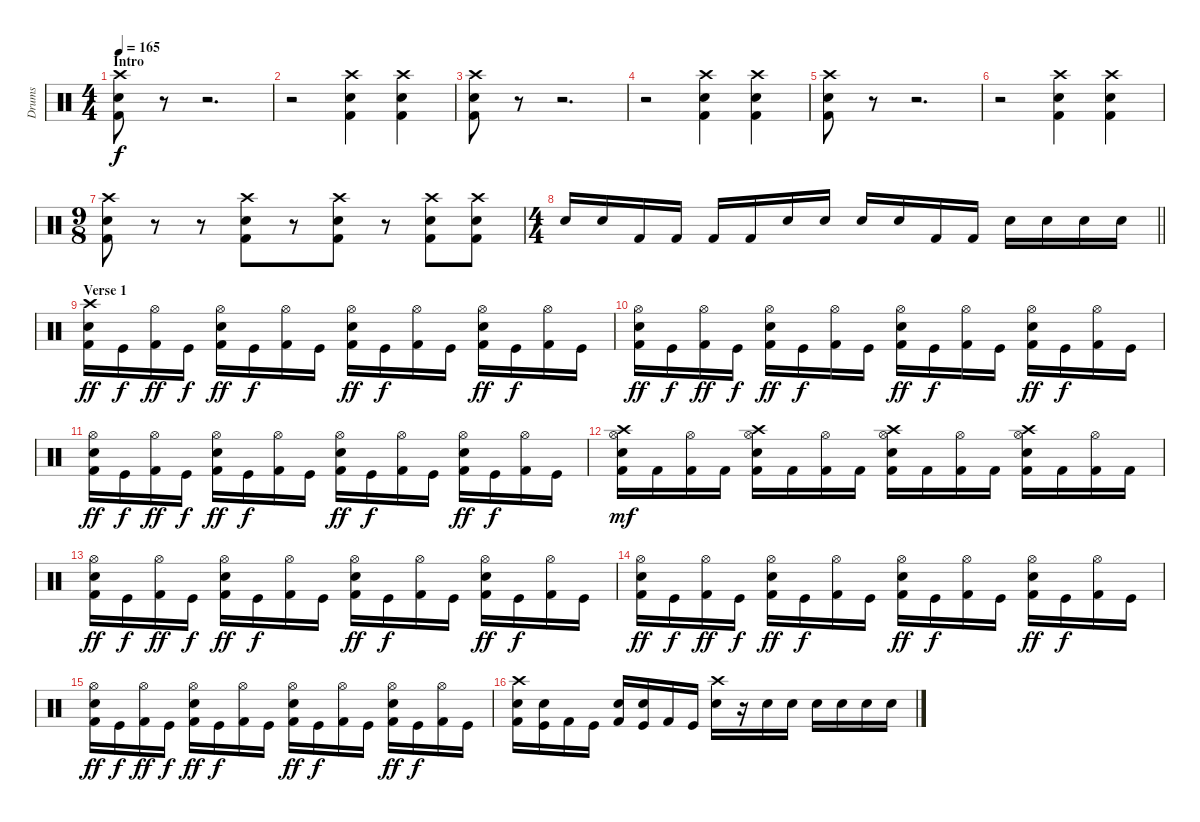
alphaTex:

\track ("Drums" "Drums") {instrument percussion}
\staff {score}
\articulation defaults
\ts (4 4)
\section ("" "Intro ")
\tempo 165
\clef neutral
\ks c
("Crash high (hit)" "Snare (hit) 2" "Kick (hit) 2").8{dy f} r.8 r.2{d} |
r.2 ("Crash high (hit)" "Snare (hit) 2" "Kick (hit) 2").4 ("Crash high (hit)" "Snare (hit) 2" "Kick (hit) 2").4 |
("Crash high (hit)" "Snare (hit) 2" "Kick (hit) 2").8 r.8 r.2{d} |
r.2 ("Crash high (hit)" "Snare (hit) 2" "Kick (hit) 2").4 ("Crash high (hit)" "Snare (hit) 2" "Kick (hit) 2").4 |
("Crash high (hit)" "Snare (hit) 2" "Kick (hit) 2").8 r.8 r.2{d} |
r.2 ("Crash high (hit)" "Snare (hit) 2" "Kick (hit) 2").4 ("Crash high (hit)" "Snare (hit) 2" "Kick (hit) 2").4 |
\ts (9 8)
("Crash high (hit)" "Snare (hit) 2" "Kick (hit) 2").8 r.8 r.8 ("Crash high (hit)" "Snare (hit) 2" "Kick (hit) 2").8 r.8 ("Crash high (hit)" "Snare (hit) 2" "Kick (hit) 2").8 r.8 ("Crash high (hit)" "Snare (hit) 2" "Kick (hit) 2").8 ("Crash high (hit)" "Snare (hit) 2" "Kick (hit) 2").8 |
\ts (4 4)
\barLineRight lightlight "Snare (hit) 2".16 "Snare (hit) 2".16 "Kick (hit) 2".16 "Kick (hit) 2".16 "Kick (hit) 2".16 "Kick (hit) 2".16 "Snare (hit) 2".16 "Snare (hit) 2".16 "Snare (hit) 2".16 "Snare (hit) 2".16 "Kick (hit) 2".16 "Kick (hit) 2".16 "Snare (hit) 2".16 "Snare (hit) 2".16 "Snare (hit) 2".16 "Snare (hit) 2".16
|
\section ("" "Verse 1")
("Crash high (hit)" "Snare (hit) 2" "Kick (hit) 2").16{dy ff} "Kick (hit)".16{dy f} ("Hi-Hat (open)" "Kick (hit) 2").16{dy ff} "Kick (hit)".16{dy f} ("Hi-Hat (open)" "Snare (hit) 2" "Kick (hit) 2").16{dy ff} "Kick (hit)".16{dy f} ("Hi-Hat (open)" "Kick (hit) 2").16 "Kick (hit)".16 ("Hi-Hat (open)" "Snare (hit) 2" "Kick (hit) 2").16{dy ff} "Kick (hit)".16{dy f} ("Hi-Hat (open)" "Kick (hit) 2").16 "Kick (hit)".16 ("Hi-Hat (open)" "Snare (hit) 2" "Kick (hit) 2").16{dy ff} "Kick (hit)".16{dy f} ("Hi-Hat (open)" "Kick (hit) 2").16 "Kick (hit)".16 |
("Hi-Hat (open)" "Snare (hit) 2" "Kick (hit) 2").16{dy ff} "Kick (hit)".16{dy f} ("Hi-Hat (open)" "Kick (hit) 2").16{dy ff} "Kick (hit)".16{dy f} ("Hi-Hat (open)" "Snare (hit) 2" "Kick (hit) 2").16{dy ff} "Kick (hit)".16{dy f} ("Hi-Hat (open)" "Kick (hit) 2").16 "Kick (hit)".16 ("Hi-Hat (open)" "Snare (hit) 2" "Kick (hit) 2").16{dy ff} "Kick (hit)".16{dy f} ("Hi-Hat (open)" "Kick (hit) 2").16 "Kick (hit)".16 ("Hi-Hat (open)" "Snare (hit) 2" "Kick (hit) 2").16{dy ff} "Kick (hit)".16{dy f} ("Hi-Hat (open)" "Kick (hit) 2").16 "Kick (hit)".16 |
("Hi-Hat (open)" "Snare (hit) 2" "Kick (hit) 2").16{dy ff} "Kick (hit)".16{dy f} ("Hi-Hat (open)" "Kick (hit) 2").16{dy ff} "Kick (hit)".16{dy f} ("Hi-Hat (open)" "Snare (hit) 2" "Kick (hit) 2").16{dy ff} "Kick (hit)".16{dy f} ("Hi-Hat (open)" "Kick (hit) 2").16 "Kick (hit)".16 ("Hi-Hat (open)" "Snare (hit) 2" "Kick (hit) 2").16{dy ff} "Kick (hit)".16{dy f} ("Hi-Hat (open)" "Kick (hit) 2").16 "Kick (hit)".16 ("Hi-Hat (open)" "Snare (hit) 2" "Kick (hit) 2").16{dy ff} "Kick (hit)".16{dy f} ("Hi-Hat (open)" "Kick (hit) 2").16 "Kick (hit)".16 |
("Hi-Hat (open)" "Snare (hit) 2" "Crash high (hit)" "Kick (hit) 2").16{dy mf} "Kick (hit) 2".16 ("Hi-Hat (open)" "Kick (hit) 2").16 "Kick (hit) 2".16 ("Hi-Hat (open)" "Snare (hit) 2" "Crash high (hit)" "Kick (hit) 2").16 "Kick (hit) 2".16 ("Hi-Hat (open)" "Kick (hit) 2").16 "Kick (hit) 2".16 ("Hi-Hat (open)" "Snare (hit) 2" "Crash high (hit)" "Kick (hit) 2").16 "Kick (hit) 2".16 ("Hi-Hat (open)" "Kick (hit) 2").16 "Kick (hit) 2".16 ("Hi-Hat (open)" "Snare (hit) 2" "Crash high (hit)" "Kick (hit) 2").16 "Kick (hit) 2".16 ("Hi-Hat (open)" "Kick (hit) 2").16 "Kick (hit) 2".16 |
("Hi-Hat (open)" "Snare (hit) 2" "Kick (hit) 2").16{dy ff} "Kick (hit)".16{dy f} ("Hi-Hat (open)" "Kick (hit) 2").16{dy ff} "Kick (hit)".16{dy f} ("Hi-Hat (open)" "Snare (hit) 2" "Kick (hit) 2").16{dy ff} "Kick (hit)".16{dy f} ("Hi-Hat (open)" "Kick (hit) 2").16 "Kick (hit)".16 ("Hi-Hat (open)" "Snare (hit) 2" "Kick (hit) 2").16{dy ff} "Kick (hit)".16{dy f} ("Hi-Hat (open)" "Kick (hit) 2").16 "Kick (hit)".16 ("Hi-Hat (open)" "Snare (hit) 2" "Kick (hit) 2").16{dy ff} "Kick (hit)".16{dy f} ("Hi-Hat (open)" "Kick (hit) 2").16 "Kick (hit)".16 |
("Hi-Hat (open)" "Snare (hit) 2" "Kick (hit) 2").16{dy ff} "Kick (hit)".16{dy f} ("Hi-Hat (open)" "Kick (hit) 2").16{dy ff} "Kick (hit)".16{dy f} ("Hi-Hat (open)" "Snare (hit) 2" "Kick (hit) 2").16{dy ff} "Kick (hit)".16{dy f} ("Hi-Hat (open)" "Kick (hit) 2").16 "Kick (hit)".16 ("Hi-Hat (open)" "Snare (hit) 2" "Kick (hit) 2").16{dy ff} "Kick (hit)".16{dy f} ("Hi-Hat (open)" "Kick (hit) 2").16 "Kick (hit)".16 ("Hi-Hat (open)" "Snare (hit) 2" "Kick (hit) 2").16{dy ff} "Kick (hit)".16{dy f} ("Hi-Hat (open)" "Kick (hit) 2").16 "Kick (hit)".16 |
("Hi-Hat (open)" "Snare (hit) 2" "Kick (hit) 2").16{dy ff} "Kick (hit)".16{dy f} ("Hi-Hat (open)" "Kick (hit) 2").16{dy ff} "Kick (hit)".16{dy f} ("Hi-Hat (open)" "Snare (hit) 2" "Kick (hit) 2").16{dy ff} "Kick (hit)".16{dy f} ("Hi-Hat (open)" "Kick (hit) 2").16 "Kick (hit)".16 ("Hi-Hat (open)" "Snare (hit) 2" "Kick (hit) 2").16{dy ff} "Kick (hit)".16{dy f} ("Hi-Hat (open)" "Kick (hit) 2").16 "Kick (hit)".16 ("Hi-Hat (open)" "Snare (hit) 2" "Kick (hit) 2").16{dy ff} "Kick (hit)".16{dy f} ("Hi-Hat (open)" "Kick (hit) 2").16 "Kick (hit)".16 |
("Crash high (hit)" "Snare (hit) 2" "Kick (hit) 2").16 ("Snare (hit) 2" "Kick (hit)").16 "Kick (hit) 2".16 "Kick (hit)".16 ("Snare (hit) 2" "Kick (hit) 2").16 ("Snare (hit) 2" "Kick (hit)").16 "Kick (hit) 2".16 "Kick (hit)".16 ("Crash high (hit)" "Snare (hit) 2").16 r.16 "Snare (hit) 2".16 "Snare (hit) 2".16 "Snare (hit) 2".16 "Snare (hit) 2".16 "Snare (hit) 2".16 "Snare (hit) 2".16
